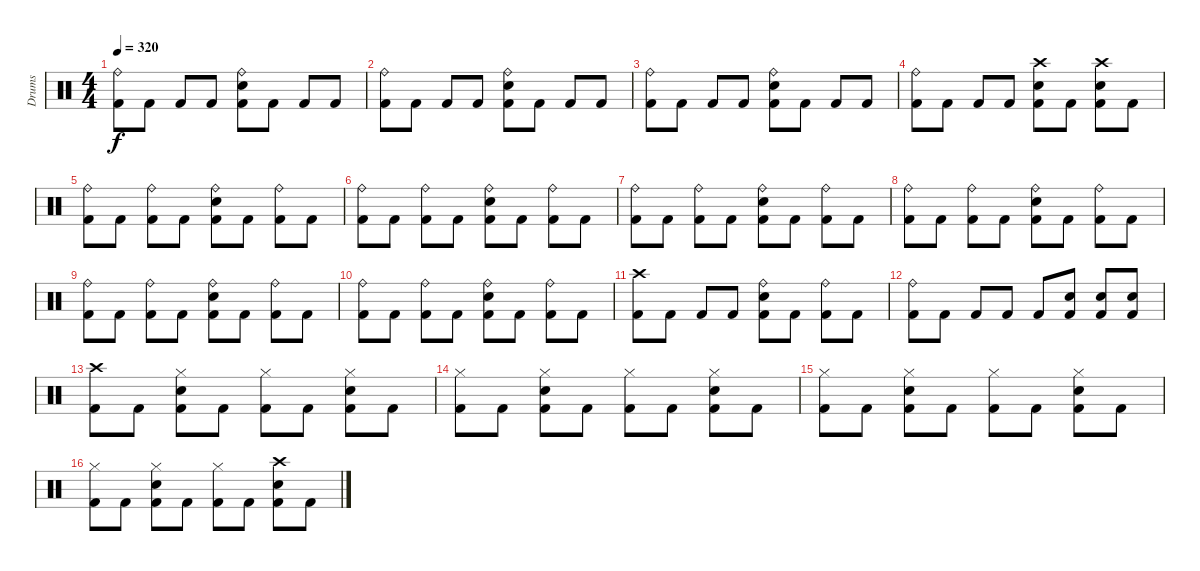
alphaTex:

\track ("Drums" "Drums") {instrument percussion}
\staff {score}
\articulation defaults
\ts (4 4)
\tempo 320
\clef neutral
\ks c
("Ride (bell)" "Kick (hit) 2").8{dy f} "Kick (hit) 2".8 "Kick (hit) 2".8 "Kick (hit) 2".8 ("Kick (hit) 2" "Snare (hit) 2" "Ride (bell)").8 "Kick (hit) 2".8 "Kick (hit) 2".8 "Kick (hit) 2".8 |
("Ride (bell)" "Kick (hit) 2").8 "Kick (hit) 2".8 "Kick (hit) 2".8 "Kick (hit) 2".8 ("Snare (hit) 2" "Kick (hit) 2" "Ride (bell)").8 "Kick (hit) 2".8 "Kick (hit) 2".8 "Kick (hit) 2".8 |
("Ride (bell)" "Kick (hit) 2").8 "Kick (hit) 2".8 "Kick (hit) 2".8 "Kick (hit) 2".8 ("Kick (hit) 2" "Ride (bell)" "Snare (hit) 2").8 "Kick (hit) 2".8 "Kick (hit) 2".8 "Kick (hit) 2".8 |
("Kick (hit) 2" "Ride (bell)").8 "Kick (hit) 2".8 "Kick (hit) 2".8 "Kick (hit) 2".8 ("Kick (hit) 2" "Snare (hit) 2" "Crash high (hit)").8 "Kick (hit) 2".8 ("Snare (hit) 2" "Kick (hit) 2" "Crash high (hit)").8 "Kick (hit) 2".8 |
("Ride (bell)" "Kick (hit) 2").8 "Kick (hit) 2".8 ("Ride (bell)" "Kick (hit) 2").8 "Kick (hit) 2".8 ("Ride (bell)" "Snare (hit) 2" "Kick (hit) 2").8 "Kick (hit) 2".8 ("Kick (hit) 2" "Ride (bell)").8 "Kick (hit) 2".8 |
("Kick (hit) 2" "Ride (bell)").8 "Kick (hit) 2".8 ("Kick (hit) 2" "Ride (bell)").8 "Kick (hit) 2".8 ("Ride (bell)" "Snare (hit) 2" "Kick (hit) 2").8 "Kick (hit) 2".8 ("Kick (hit) 2" "Ride (bell)").8 "Kick (hit) 2".8 |
("Ride (bell)" "Kick (hit) 2").8 "Kick (hit) 2".8 ("Ride (bell)" "Kick (hit) 2").8 "Kick (hit) 2".8 ("Ride (bell)" "Kick (hit) 2" "Snare (hit) 2").8 "Kick (hit) 2".8 ("Ride (bell)" "Kick (hit) 2").8 "Kick (hit) 2".8 |
("Ride (bell)" "Kick (hit) 2").8 "Kick (hit) 2".8 ("Kick (hit) 2" "Ride (bell)").8 "Kick (hit) 2".8 ("Snare (hit) 2" "Ride (bell)" "Kick (hit) 2").8 "Kick (hit) 2".8 ("Kick (hit) 2" "Ride (bell)").8 "Kick (hit) 2".8 |
("Kick (hit) 2" "Ride (bell)").8 "Kick (hit) 2".8 ("Ride (bell)" "Kick (hit) 2").8 "Kick (hit) 2".8 ("Ride (bell)" "Snare (hit) 2" "Kick (hit) 2").8 "Kick (hit) 2".8 ("Ride (bell)" "Kick (hit) 2").8 "Kick (hit) 2".8 |
("Kick (hit) 2" "Ride (bell)").8 "Kick (hit) 2".8 ("Kick (hit) 2" "Ride (bell)").8 "Kick (hit) 2".8 ("Ride (bell)" "Snare (hit) 2" "Kick (hit) 2").8 "Kick (hit) 2".8 ("Kick (hit) 2" "Ride (bell)").8 "Kick (hit) 2".8 |
("Kick (hit) 2" "Crash high (hit)").8 "Kick (hit) 2".8 "Kick (hit) 2".8 "Kick (hit) 2".8 ("Kick (hit) 2" "Ride (bell)" "Snare (hit) 2").8 "Kick (hit) 2".8 ("Ride (bell)" "Kick (hit) 2").8 "Kick (hit) 2".8 |
("Kick (hit) 2" "Ride (bell)").8 "Kick (hit) 2".8 "Kick (hit) 2".8 "Kick (hit) 2".8 "Kick (hit) 2".8 ("Kick (hit) 2" "Snare (hit) 2").8 ("Snare (hit) 2" "Kick (hit) 2").8 ("Kick (hit) 2" "Snare (hit) 2").8 |
("Kick (hit) 2" "Crash high (hit)").8 "Kick (hit) 2".8 ("Kick (hit) 2" "Snare (hit) 2" "Hi-Hat (closed)").8 "Kick (hit) 2".8 ("Kick (hit) 2" "Hi-Hat (closed)").8 "Kick (hit) 2".8 ("Hi-Hat (closed)" "Snare (hit) 2" "Kick (hit) 2").8 "Kick (hit) 2".8 |
("Kick (hit) 2" "Hi-Hat (closed)").8 "Kick (hit) 2".8 ("Kick (hit) 2" "Hi-Hat (closed)" "Snare (hit) 2").8 "Kick (hit) 2".8 ("Kick (hit) 2" "Hi-Hat (closed)").8 "Kick (hit) 2".8 ("Snare (hit) 2" "Hi-Hat (closed)" "Kick (hit) 2").8 "Kick (hit) 2".8 |
("Kick (hit) 2" "Hi-Hat (closed)").8 "Kick (hit) 2".8 ("Snare (hit) 2" "Kick (hit) 2" "Hi-Hat (closed)").8 "Kick (hit) 2".8 ("Hi-Hat (closed)" "Kick (hit) 2").8 "Kick (hit) 2".8 ("Snare (hit) 2" "Hi-Hat (closed)" "Kick (hit) 2").8 "Kick (hit) 2".8 |
("Kick (hit) 2" "Hi-Hat (closed)").8 "Kick (hit) 2".8 ("Snare (hit) 2" "Kick (hit) 2" "Hi-Hat (closed)").8 "Kick (hit) 2".8 ("Hi-Hat (closed)" "Kick (hit) 2").8 "Kick (hit) 2".8 ("Snare (hit) 2" "Crash high (hit)" "Kick (hit) 2").8 "Kick (hit) 2".8
